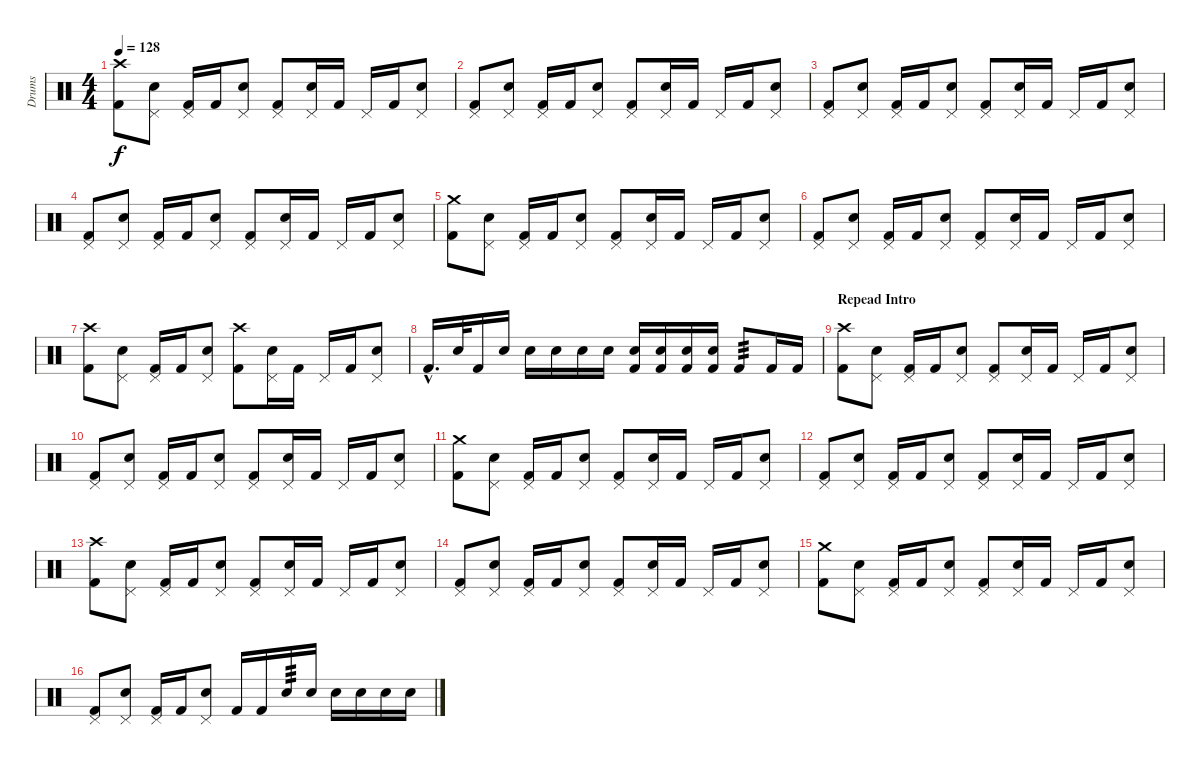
\track ("Drums" "Drums") {instrument percussion}
\staff {score}
\articulation defaults
\ts (4 4)
\tempo 128
\clef neutral
\ks c
("Crash high (hit)" "Kick (hit) 2").8{dy f} ("Pedal Hi-Hat (hit)" "Snare (hit) 2").8 ("Pedal Hi-Hat (hit)" "Kick (hit) 2").16 "Kick (hit) 2".16 ("Pedal Hi-Hat (hit)" "Snare (hit) 2").8 ("Pedal Hi-Hat (hit)" "Kick (hit) 2").8 ("Pedal Hi-Hat (hit)" "Snare (hit) 2").16 "Kick (hit) 2".16 "Pedal Hi-Hat (hit)".16 "Kick (hit) 2".16 ("Pedal Hi-Hat (hit)" "Snare (hit) 2").8 |
("Pedal Hi-Hat (hit)" "Kick (hit) 2").8 ("Pedal Hi-Hat (hit)" "Snare (hit) 2").8 ("Pedal Hi-Hat (hit)" "Kick (hit) 2").16 "Kick (hit) 2".16 ("Pedal Hi-Hat (hit)" "Snare (hit) 2").8 ("Pedal Hi-Hat (hit)" "Kick (hit) 2").8 ("Pedal Hi-Hat (hit)" "Snare (hit) 2").16 "Kick (hit) 2".16 "Pedal Hi-Hat (hit)".16 "Kick (hit) 2".16 ("Pedal Hi-Hat (hit)" "Snare (hit) 2").8 |
("Pedal Hi-Hat (hit)" "Kick (hit) 2").8 ("Pedal Hi-Hat (hit)" "Snare (hit) 2").8 ("Pedal Hi-Hat (hit)" "Kick (hit) 2").16 "Kick (hit) 2".16 ("Pedal Hi-Hat (hit)" "Snare (hit) 2").8 ("Pedal Hi-Hat (hit)" "Kick (hit) 2").8 ("Pedal Hi-Hat (hit)" "Snare (hit) 2").16 "Kick (hit) 2".16 "Pedal Hi-Hat (hit)".16 "Kick (hit) 2".16 ("Pedal Hi-Hat (hit)" "Snare (hit) 2").8 |
("Pedal Hi-Hat (hit)" "Kick (hit) 2").8 ("Pedal Hi-Hat (hit)" "Snare (hit) 2").8 ("Pedal Hi-Hat (hit)" "Kick (hit) 2").16 "Kick (hit) 2".16 ("Pedal Hi-Hat (hit)" "Snare (hit) 2").8 ("Pedal Hi-Hat (hit)" "Kick (hit) 2").8 ("Pedal Hi-Hat (hit)" "Snare (hit) 2").16 "Kick (hit) 2".16 "Pedal Hi-Hat (hit)".16 "Kick (hit) 2".16 ("Pedal Hi-Hat (hit)" "Snare (hit) 2").8 |
("Crash medium (hit)" "Kick (hit) 2").8 ("Pedal Hi-Hat (hit)" "Snare (hit) 2").8 ("Pedal Hi-Hat (hit)" "Kick (hit) 2").16 "Kick (hit) 2".16 ("Pedal Hi-Hat (hit)" "Snare (hit) 2").8 ("Pedal Hi-Hat (hit)" "Kick (hit) 2").8 ("Pedal Hi-Hat (hit)" "Snare (hit) 2").16 "Kick (hit) 2".16 "Pedal Hi-Hat (hit)".16 "Kick (hit) 2".16 ("Pedal Hi-Hat (hit)" "Snare (hit) 2").8 |
("Pedal Hi-Hat (hit)" "Kick (hit) 2").8 ("Pedal Hi-Hat (hit)" "Snare (hit) 2").8 ("Pedal Hi-Hat (hit)" "Kick (hit) 2").16 "Kick (hit) 2".16 ("Pedal Hi-Hat (hit)" "Snare (hit) 2").8 ("Pedal Hi-Hat (hit)" "Kick (hit) 2").8 ("Pedal Hi-Hat (hit)" "Snare (hit) 2").16 "Kick (hit) 2".16 "Pedal Hi-Hat (hit)".16 "Kick (hit) 2".16 ("Pedal Hi-Hat (hit)" "Snare (hit) 2").8 |
("Crash high (hit)" "Kick (hit) 2").8 ("Pedal Hi-Hat (hit)" "Snare (hit) 2").8 ("Pedal Hi-Hat (hit)" "Kick (hit) 2").16 "Kick (hit) 2".16 ("Pedal Hi-Hat (hit)" "Snare (hit) 2").8 ("Crash high (hit)" "Kick (hit) 2").8 ("Pedal Hi-Hat (hit)" "Snare (hit) 2").16 "Kick (hit) 2".16 "Pedal Hi-Hat (hit)".16 "Kick (hit) 2".16 ("Pedal Hi-Hat (hit)" "Snare (hit) 2").8 |
"Kick (hit) 2"{hac}.16{d} "Snare (hit) 2".32 "Kick (hit) 2".16 "Snare (hit) 2".16 "Snare (hit) 2".16 "Snare (hit) 2".16 "Snare (hit) 2".16 "Snare (hit) 2".16 ("Snare (hit) 2" "Kick (hit) 2").16 ("Snare (hit) 2" "Kick (hit) 2").16 ("Snare (hit) 2" "Kick (hit) 2").16 ("Snare (hit) 2" "Kick (hit) 2").16 "Kick (hit) 2".8{tp 3} "Kick (hit) 2".16 "Kick (hit) 2".16 |
\section ("" "Repead Intro")
("Crash high (hit)" "Kick (hit) 2").8 ("Pedal Hi-Hat (hit)" "Snare (hit) 2").8 ("Pedal Hi-Hat (hit)" "Kick (hit) 2").16 "Kick (hit) 2".16 ("Pedal Hi-Hat (hit)" "Snare (hit) 2").8 ("Pedal Hi-Hat (hit)" "Kick (hit) 2").8 ("Pedal Hi-Hat (hit)" "Snare (hit) 2").16 "Kick (hit) 2".16 "Pedal Hi-Hat (hit)".16 "Kick (hit) 2".16 ("Pedal Hi-Hat (hit)" "Snare (hit) 2").8 |
("Pedal Hi-Hat (hit)" "Kick (hit) 2").8 ("Pedal Hi-Hat (hit)" "Snare (hit) 2").8 ("Pedal Hi-Hat (hit)" "Kick (hit) 2").16 "Kick (hit) 2".16 ("Pedal Hi-Hat (hit)" "Snare (hit) 2").8 ("Pedal Hi-Hat (hit)" "Kick (hit) 2").8 ("Pedal Hi-Hat (hit)" "Snare (hit) 2").16 "Kick (hit) 2".16 "Pedal Hi-Hat (hit)".16 "Kick (hit) 2".16 ("Pedal Hi-Hat (hit)" "Snare (hit) 2").8 |
("Crash medium (hit)" "Kick (hit) 2").8 ("Pedal Hi-Hat (hit)" "Snare (hit) 2").8 ("Pedal Hi-Hat (hit)" "Kick (hit) 2").16 "Kick (hit) 2".16 ("Pedal Hi-Hat (hit)" "Snare (hit) 2").8 ("Pedal Hi-Hat (hit)" "Kick (hit) 2").8 ("Pedal Hi-Hat (hit)" "Snare (hit) 2").16 "Kick (hit) 2".16 "Pedal Hi-Hat (hit)".16 "Kick (hit) 2".16 ("Pedal Hi-Hat (hit)" "Snare (hit) 2").8 |
("Pedal Hi-Hat (hit)" "Kick (hit) 2").8 ("Pedal Hi-Hat (hit)" "Snare (hit) 2").8 ("Pedal Hi-Hat (hit)" "Kick (hit) 2").16 "Kick (hit) 2".16 ("Pedal Hi-Hat (hit)" "Snare (hit) 2").8 ("Pedal Hi-Hat (hit)" "Kick (hit) 2").8 ("Pedal Hi-Hat (hit)" "Snare (hit) 2").16 "Kick (hit) 2".16 "Pedal Hi-Hat (hit)".16 "Kick (hit) 2".16 ("Pedal Hi-Hat (hit)" "Snare (hit) 2").8 |
("Crash high (hit)" "Kick (hit) 2").8 ("Pedal Hi-Hat (hit)" "Snare (hit) 2").8 ("Pedal Hi-Hat (hit)" "Kick (hit) 2").16 "Kick (hit) 2".16 ("Pedal Hi-Hat (hit)" "Snare (hit) 2").8 ("Pedal Hi-Hat (hit)" "Kick (hit) 2").8 ("Pedal Hi-Hat (hit)" "Snare (hit) 2").16 "Kick (hit) 2".16 "Pedal Hi-Hat (hit)".16 "Kick (hit) 2".16 ("Pedal Hi-Hat (hit)" "Snare (hit) 2").8 |
("Pedal Hi-Hat (hit)" "Kick (hit) 2").8 ("Pedal Hi-Hat (hit)" "Snare (hit) 2").8 ("Pedal Hi-Hat (hit)" "Kick (hit) 2").16 "Kick (hit) 2".16 ("Pedal Hi-Hat (hit)" "Snare (hit) 2").8 ("Pedal Hi-Hat (hit)" "Kick (hit) 2").8 ("Pedal Hi-Hat (hit)" "Snare (hit) 2").16 "Kick (hit) 2".16 "Pedal Hi-Hat (hit)".16 "Kick (hit) 2".16 ("Pedal Hi-Hat (hit)" "Snare (hit) 2").8 |
("Crash medium (hit)" "Kick (hit) 2").8 ("Pedal Hi-Hat (hit)" "Snare (hit) 2").8 ("Pedal Hi-Hat (hit)" "Kick (hit) 2").16 "Kick (hit) 2".16 ("Pedal Hi-Hat (hit)" "Snare (hit) 2").8 ("Pedal Hi-Hat (hit)" "Kick (hit) 2").8 ("Pedal Hi-Hat (hit)" "Snare (hit) 2").16 "Kick (hit) 2".16 "Pedal Hi-Hat (hit)".16 "Kick (hit) 2".16 ("Pedal Hi-Hat (hit)" "Snare (hit) 2").8 |
("Pedal Hi-Hat (hit)" "Kick (hit) 2").8 ("Pedal Hi-Hat (hit)" "Snare (hit) 2").8 ("Pedal Hi-Hat (hit)" "Kick (hit) 2").16 "Kick (hit) 2".16 ("Pedal Hi-Hat (hit)" "Snare (hit) 2").8 "Kick (hit) 2".16 "Kick (hit) 2".16 "Snare (hit) 2".16{tp 3} "Snare (hit) 2".16 "Snare (hit) 2".16 "Snare (hit) 2".16 "Snare (hit) 2".16 "Snare (hit) 2".16
